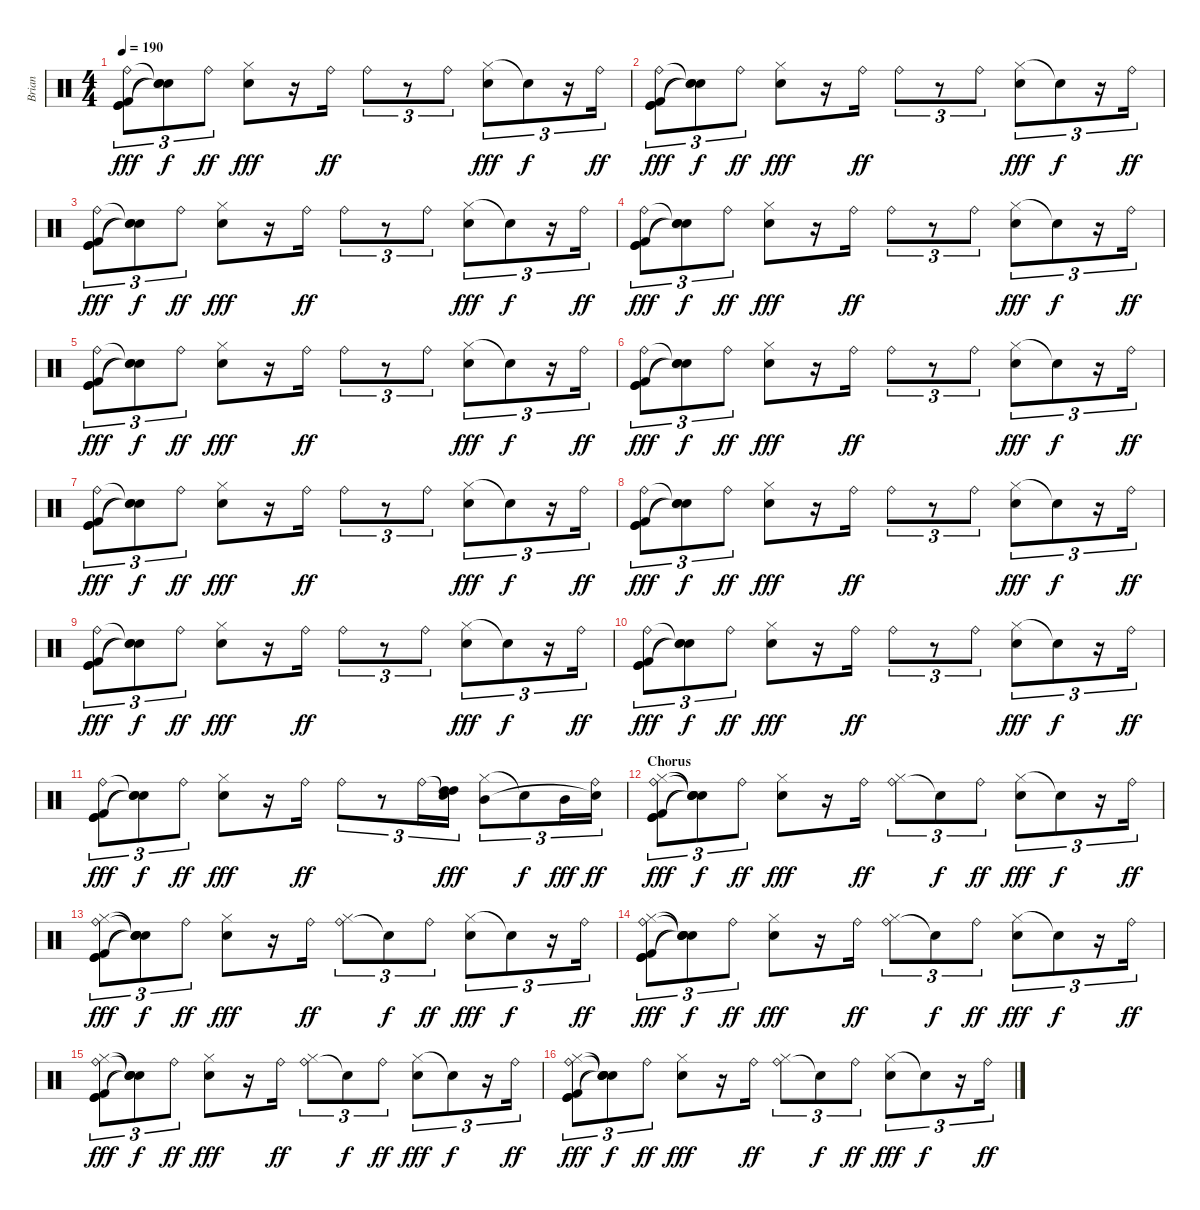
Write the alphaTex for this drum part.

\track ("Brian" "Brian") {instrument percussion}
\staff {score}
\articulation defaults
\ts (4 4)
\tempo 190
\clef neutral
\ks c
("Ride (bell)" "Kick (hit)" "Kick (hit) 2" "Kick (hit)").8{tu (3 2) dy fff} ("Snare (hit)"{t} "Snare (hit)"{t} "Snare (hit)"{t}).8{tu (3 2) dy f} "Ride (bell)".8{tu (3 2) dy ff} ("Hi-Hat (closed)" "Electric Snare (hit)").8{dy fff} r.16 "Ride (bell)".16{dy ff} "Ride (bell)".8{tu (3 2)} r.8{tu (3 2)} "Ride (bell)".8{tu (3 2)} ("Hi-Hat (closed)" "Electric Snare (hit)").8{tu (3 2) dy fff} "Snare (hit)"{t}.8{tu (3 2) dy f} r.16{tu (3 2)} "Ride (bell)".16{tu (3 2) dy ff} |
("Ride (bell)" "Kick (hit)" "Kick (hit) 2" "Kick (hit)").8{tu (3 2) dy fff} ("Snare (hit)"{t} "Snare (hit)"{t} "Snare (hit)"{t}).8{tu (3 2) dy f} "Ride (bell)".8{tu (3 2) dy ff} ("Hi-Hat (closed)" "Electric Snare (hit)").8{dy fff} r.16 "Ride (bell)".16{dy ff} "Ride (bell)".8{tu (3 2)} r.8{tu (3 2)} "Ride (bell)".8{tu (3 2)} ("Hi-Hat (closed)" "Electric Snare (hit)").8{tu (3 2) dy fff} "Snare (hit)"{t}.8{tu (3 2) dy f} r.16{tu (3 2)} "Ride (bell)".16{tu (3 2) dy ff} |
("Ride (bell)" "Kick (hit)" "Kick (hit) 2" "Kick (hit)").8{tu (3 2) dy fff} ("Snare (hit)"{t} "Snare (hit)"{t} "Snare (hit)"{t}).8{tu (3 2) dy f} "Ride (bell)".8{tu (3 2) dy ff} ("Hi-Hat (closed)" "Electric Snare (hit)").8{dy fff} r.16 "Ride (bell)".16{dy ff} "Ride (bell)".8{tu (3 2)} r.8{tu (3 2)} "Ride (bell)".8{tu (3 2)} ("Hi-Hat (closed)" "Electric Snare (hit)").8{tu (3 2) dy fff} "Snare (hit)"{t}.8{tu (3 2) dy f} r.16{tu (3 2)} "Ride (bell)".16{tu (3 2) dy ff} |
("Ride (bell)" "Kick (hit)" "Kick (hit) 2" "Kick (hit)").8{tu (3 2) dy fff} ("Snare (hit)"{t} "Snare (hit)"{t} "Snare (hit)"{t}).8{tu (3 2) dy f} "Ride (bell)".8{tu (3 2) dy ff} ("Hi-Hat (closed)" "Electric Snare (hit)").8{dy fff} r.16 "Ride (bell)".16{dy ff} "Ride (bell)".8{tu (3 2)} r.8{tu (3 2)} "Ride (bell)".8{tu (3 2)} ("Hi-Hat (closed)" "Electric Snare (hit)").8{tu (3 2) dy fff} "Snare (hit)"{t}.8{tu (3 2) dy f} r.16{tu (3 2)} "Ride (bell)".16{tu (3 2) dy ff} |
("Ride (bell)" "Kick (hit)" "Kick (hit) 2" "Kick (hit)").8{tu (3 2) dy fff} ("Snare (hit)"{t} "Snare (hit)"{t} "Snare (hit)"{t}).8{tu (3 2) dy f} "Ride (bell)".8{tu (3 2) dy ff} ("Hi-Hat (closed)" "Electric Snare (hit)").8{dy fff} r.16 "Ride (bell)".16{dy ff} "Ride (bell)".8{tu (3 2)} r.8{tu (3 2)} "Ride (bell)".8{tu (3 2)} ("Hi-Hat (closed)" "Electric Snare (hit)").8{tu (3 2) dy fff} "Snare (hit)"{t}.8{tu (3 2) dy f} r.16{tu (3 2)} "Ride (bell)".16{tu (3 2) dy ff} |
("Ride (bell)" "Kick (hit)" "Kick (hit) 2" "Kick (hit)").8{tu (3 2) dy fff} ("Snare (hit)"{t} "Snare (hit)"{t} "Snare (hit)"{t}).8{tu (3 2) dy f} "Ride (bell)".8{tu (3 2) dy ff} ("Hi-Hat (closed)" "Electric Snare (hit)").8{dy fff} r.16 "Ride (bell)".16{dy ff} "Ride (bell)".8{tu (3 2)} r.8{tu (3 2)} "Ride (bell)".8{tu (3 2)} ("Hi-Hat (closed)" "Electric Snare (hit)").8{tu (3 2) dy fff} "Snare (hit)"{t}.8{tu (3 2) dy f} r.16{tu (3 2)} "Ride (bell)".16{tu (3 2) dy ff} |
("Ride (bell)" "Kick (hit)" "Kick (hit) 2" "Kick (hit)").8{tu (3 2) dy fff} ("Snare (hit)"{t} "Snare (hit)"{t} "Snare (hit)"{t}).8{tu (3 2) dy f} "Ride (bell)".8{tu (3 2) dy ff} ("Hi-Hat (closed)" "Electric Snare (hit)").8{dy fff} r.16 "Ride (bell)".16{dy ff} "Ride (bell)".8{tu (3 2)} r.8{tu (3 2)} "Ride (bell)".8{tu (3 2)} ("Hi-Hat (closed)" "Electric Snare (hit)").8{tu (3 2) dy fff} "Snare (hit)"{t}.8{tu (3 2) dy f} r.16{tu (3 2)} "Ride (bell)".16{tu (3 2) dy ff} |
("Ride (bell)" "Kick (hit)" "Kick (hit) 2" "Kick (hit)").8{tu (3 2) dy fff} ("Snare (hit)"{t} "Snare (hit)"{t} "Snare (hit)"{t}).8{tu (3 2) dy f} "Ride (bell)".8{tu (3 2) dy ff} ("Hi-Hat (closed)" "Electric Snare (hit)").8{dy fff} r.16 "Ride (bell)".16{dy ff} "Ride (bell)".8{tu (3 2)} r.8{tu (3 2)} "Ride (bell)".8{tu (3 2)} ("Hi-Hat (closed)" "Electric Snare (hit)").8{tu (3 2) dy fff} "Snare (hit)"{t}.8{tu (3 2) dy f} r.16{tu (3 2)} "Ride (bell)".16{tu (3 2) dy ff} |
("Ride (bell)" "Kick (hit)" "Kick (hit) 2" "Kick (hit)").8{tu (3 2) dy fff} ("Snare (hit)"{t} "Snare (hit)"{t} "Snare (hit)"{t}).8{tu (3 2) dy f} "Ride (bell)".8{tu (3 2) dy ff} ("Hi-Hat (closed)" "Electric Snare (hit)").8{dy fff} r.16 "Ride (bell)".16{dy ff} "Ride (bell)".8{tu (3 2)} r.8{tu (3 2)} "Ride (bell)".8{tu (3 2)} ("Hi-Hat (closed)" "Electric Snare (hit)").8{tu (3 2) dy fff} "Snare (hit)"{t}.8{tu (3 2) dy f} r.16{tu (3 2)} "Ride (bell)".16{tu (3 2) dy ff} |
("Ride (bell)" "Kick (hit)" "Kick (hit) 2" "Kick (hit)").8{tu (3 2) dy fff} ("Snare (hit)"{t} "Snare (hit)"{t} "Snare (hit)"{t}).8{tu (3 2) dy f} "Ride (bell)".8{tu (3 2) dy ff} ("Hi-Hat (closed)" "Electric Snare (hit)").8{dy fff} r.16 "Ride (bell)".16{dy ff} "Ride (bell)".8{tu (3 2)} r.8{tu (3 2)} "Ride (bell)".8{tu (3 2)} ("Hi-Hat (closed)" "Electric Snare (hit)").8{tu (3 2) dy fff} "Snare (hit)"{t}.8{tu (3 2) dy f} r.16{tu (3 2)} "Ride (bell)".16{tu (3 2) dy ff} |
("Ride (bell)" "Kick (hit)" "Kick (hit) 2" "Kick (hit)").8{tu (3 2) dy fff} ("Snare (hit)"{t} "Snare (hit)"{t} "Snare (hit)"{t}).8{tu (3 2) dy f} "Ride (bell)".8{tu (3 2) dy ff} ("Hi-Hat (closed)" "Electric Snare (hit)").8{dy fff} r.16 "Ride (bell)".16{dy ff} "Ride (bell)".8{tu (3 2)} r.8{tu (3 2)} "Ride (bell)".16{tu (3 2)} ("Snare (hit)"{t} "High Tom (hit)" "High Tom (hit)").16{tu (3 2) dy fff} ("Hi-Hat (closed)" "Mid Tom (hit)").8{tu (3 2)} "Snare (hit)"{t}.8{tu (3 2) dy f} "Mid Tom (hit)".16{tu (3 2) dy fff} ("Ride (bell)" "Snare (hit)"{t}).16{tu (3 2) dy ff} |
\section ("" "Chorus")
("Ride (bell)" "Hi-Hat (closed)" "Kick (hit)" "Kick (hit) 2" "Kick (hit)").8{tu (3 2) dy fff} ("Snare (hit)"{t} "Snare (hit)"{t} "Snare (hit)"{t} "Snare (hit)"{t}).8{tu (3 2) dy f} "Ride (bell)".8{tu (3 2) dy ff} ("Hi-Hat (closed)" "Electric Snare (hit)").8{dy fff} r.16 "Ride (bell)".16{dy ff} ("Ride (bell)" "Hi-Hat (closed)").8{tu (3 2)} "Snare (hit)"{t}.8{tu (3 2) dy f} "Ride (bell)".8{tu (3 2) dy ff} ("Hi-Hat (closed)" "Electric Snare (hit)").8{tu (3 2) dy fff} "Snare (hit)"{t}.8{tu (3 2) dy f} r.16{tu (3 2)} "Ride (bell)".16{tu (3 2) dy ff} |
("Ride (bell)" "Hi-Hat (closed)" "Kick (hit)" "Kick (hit) 2" "Kick (hit)").8{tu (3 2) dy fff} ("Snare (hit)"{t} "Snare (hit)"{t} "Snare (hit)"{t} "Snare (hit)"{t}).8{tu (3 2) dy f} "Ride (bell)".8{tu (3 2) dy ff} ("Hi-Hat (closed)" "Electric Snare (hit)").8{dy fff} r.16 "Ride (bell)".16{dy ff} ("Ride (bell)" "Hi-Hat (closed)").8{tu (3 2)} "Snare (hit)"{t}.8{tu (3 2) dy f} "Ride (bell)".8{tu (3 2) dy ff} ("Hi-Hat (closed)" "Electric Snare (hit)").8{tu (3 2) dy fff} "Snare (hit)"{t}.8{tu (3 2) dy f} r.16{tu (3 2)} "Ride (bell)".16{tu (3 2) dy ff} |
("Ride (bell)" "Hi-Hat (closed)" "Kick (hit)" "Kick (hit) 2" "Kick (hit)").8{tu (3 2) dy fff} ("Snare (hit)"{t} "Snare (hit)"{t} "Snare (hit)"{t} "Snare (hit)"{t}).8{tu (3 2) dy f} "Ride (bell)".8{tu (3 2) dy ff} ("Hi-Hat (closed)" "Electric Snare (hit)").8{dy fff} r.16 "Ride (bell)".16{dy ff} ("Ride (bell)" "Hi-Hat (closed)").8{tu (3 2)} "Snare (hit)"{t}.8{tu (3 2) dy f} "Ride (bell)".8{tu (3 2) dy ff} ("Hi-Hat (closed)" "Electric Snare (hit)").8{tu (3 2) dy fff} "Snare (hit)"{t}.8{tu (3 2) dy f} r.16{tu (3 2)} "Ride (bell)".16{tu (3 2) dy ff} |
("Ride (bell)" "Hi-Hat (closed)" "Kick (hit)" "Kick (hit) 2" "Kick (hit)").8{tu (3 2) dy fff} ("Snare (hit)"{t} "Snare (hit)"{t} "Snare (hit)"{t} "Snare (hit)"{t}).8{tu (3 2) dy f} "Ride (bell)".8{tu (3 2) dy ff} ("Hi-Hat (closed)" "Electric Snare (hit)").8{dy fff} r.16 "Ride (bell)".16{dy ff} ("Ride (bell)" "Hi-Hat (closed)").8{tu (3 2)} "Snare (hit)"{t}.8{tu (3 2) dy f} "Ride (bell)".8{tu (3 2) dy ff} ("Hi-Hat (closed)" "Electric Snare (hit)").8{tu (3 2) dy fff} "Snare (hit)"{t}.8{tu (3 2) dy f} r.16{tu (3 2)} "Ride (bell)".16{tu (3 2) dy ff} |
("Ride (bell)" "Hi-Hat (closed)" "Kick (hit)" "Kick (hit) 2" "Kick (hit)").8{tu (3 2) dy fff} ("Snare (hit)"{t} "Snare (hit)"{t} "Snare (hit)"{t} "Snare (hit)"{t}).8{tu (3 2) dy f} "Ride (bell)".8{tu (3 2) dy ff} ("Hi-Hat (closed)" "Electric Snare (hit)").8{dy fff} r.16 "Ride (bell)".16{dy ff} ("Ride (bell)" "Hi-Hat (closed)").8{tu (3 2)} "Snare (hit)"{t}.8{tu (3 2) dy f} "Ride (bell)".8{tu (3 2) dy ff} ("Hi-Hat (closed)" "Electric Snare (hit)").8{tu (3 2) dy fff} "Snare (hit)"{t}.8{tu (3 2) dy f} r.16{tu (3 2)} "Ride (bell)".16{tu (3 2) dy ff}
